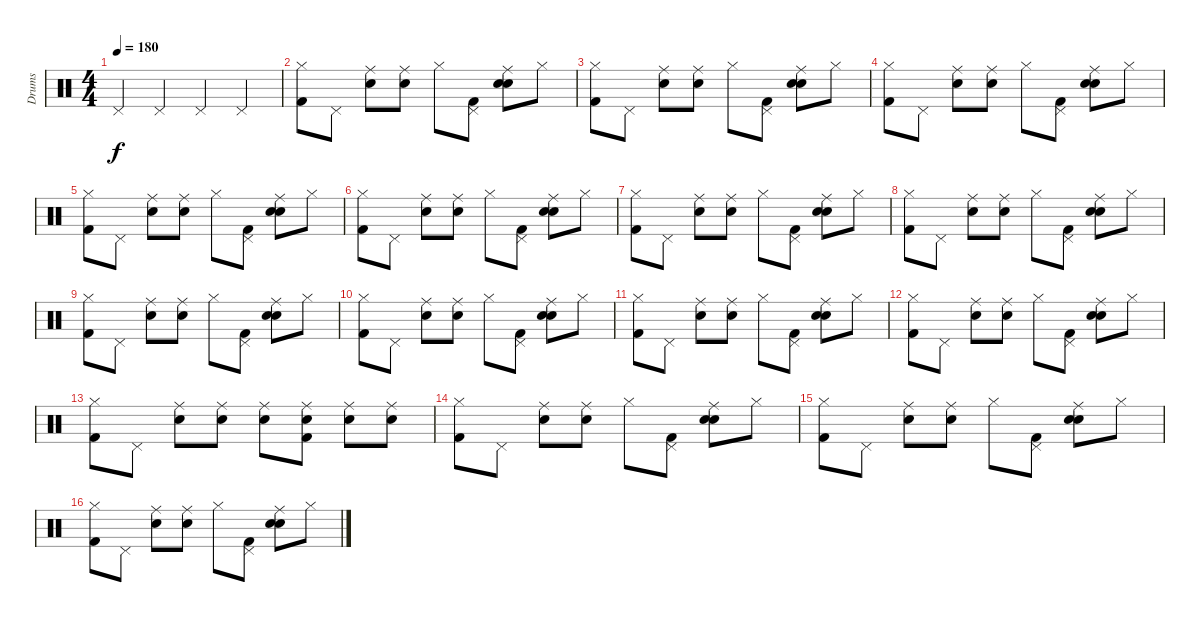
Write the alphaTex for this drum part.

\track ("Drums" "Drums") {instrument percussion}
\staff {score}
\articulation defaults
\ts (4 4)
\tempo 180
\clef neutral
\ks c "Pedal Hi-Hat (hit)".4{dy f} "Pedal Hi-Hat (hit)".4 "Pedal Hi-Hat (hit)".4 "Pedal Hi-Hat (hit)".4
|
("Hi-Hat (closed)" "Kick (hit) 2").8 "Pedal Hi-Hat (hit)".8 ("Ride (middle)" "Snare (hit) 2").8 ("Ride (middle)" "Snare (hit) 2").8 "Hi-Hat (closed)".8 ("Pedal Hi-Hat (hit)" "Kick (hit) 2").8 ("Hand Clap (hit)" "Ride (middle)" "Snare (hit) 2").8 "Hi-Hat (closed)".8 |
("Hi-Hat (closed)" "Kick (hit) 2").8 "Pedal Hi-Hat (hit)".8 ("Ride (middle)" "Snare (hit) 2").8 ("Ride (middle)" "Snare (hit) 2").8 "Hi-Hat (closed)".8 ("Pedal Hi-Hat (hit)" "Kick (hit) 2").8 ("Hand Clap (hit)" "Ride (middle)" "Snare (hit) 2").8 "Hi-Hat (closed)".8 |
("Hi-Hat (closed)" "Kick (hit) 2").8 "Pedal Hi-Hat (hit)".8 ("Ride (middle)" "Snare (hit) 2").8 ("Ride (middle)" "Snare (hit) 2").8 "Hi-Hat (closed)".8 ("Pedal Hi-Hat (hit)" "Kick (hit) 2").8 ("Hand Clap (hit)" "Ride (middle)" "Snare (hit) 2").8 "Hi-Hat (closed)".8 |
("Hi-Hat (closed)" "Kick (hit) 2").8 "Pedal Hi-Hat (hit)".8 ("Ride (middle)" "Snare (hit) 2").8 ("Ride (middle)" "Snare (hit) 2").8 "Hi-Hat (closed)".8 ("Pedal Hi-Hat (hit)" "Kick (hit) 2").8 ("Hand Clap (hit)" "Ride (middle)" "Snare (hit) 2").8 "Hi-Hat (closed)".8 |
("Hi-Hat (closed)" "Kick (hit) 2").8 "Pedal Hi-Hat (hit)".8 ("Ride (middle)" "Snare (hit) 2").8 ("Ride (middle)" "Snare (hit) 2").8 "Hi-Hat (closed)".8 ("Pedal Hi-Hat (hit)" "Kick (hit) 2").8 ("Hand Clap (hit)" "Ride (middle)" "Snare (hit) 2").8 "Hi-Hat (closed)".8 |
("Hi-Hat (closed)" "Kick (hit) 2").8 "Pedal Hi-Hat (hit)".8 ("Ride (middle)" "Snare (hit) 2").8 ("Ride (middle)" "Snare (hit) 2").8 "Hi-Hat (closed)".8 ("Pedal Hi-Hat (hit)" "Kick (hit) 2").8 ("Hand Clap (hit)" "Ride (middle)" "Snare (hit) 2").8 "Hi-Hat (closed)".8 |
("Hi-Hat (closed)" "Kick (hit) 2").8 "Pedal Hi-Hat (hit)".8 ("Ride (middle)" "Snare (hit) 2").8 ("Ride (middle)" "Snare (hit) 2").8 "Hi-Hat (closed)".8 ("Pedal Hi-Hat (hit)" "Kick (hit) 2").8 ("Hand Clap (hit)" "Ride (middle)" "Snare (hit) 2").8 "Hi-Hat (closed)".8 |
("Hi-Hat (closed)" "Kick (hit) 2").8 "Pedal Hi-Hat (hit)".8 ("Ride (middle)" "Snare (hit) 2").8 ("Ride (middle)" "Snare (hit) 2").8 "Hi-Hat (closed)".8 ("Pedal Hi-Hat (hit)" "Kick (hit) 2").8 ("Hand Clap (hit)" "Ride (middle)" "Snare (hit) 2").8 "Hi-Hat (closed)".8 |
("Hi-Hat (closed)" "Kick (hit) 2").8 "Pedal Hi-Hat (hit)".8 ("Ride (middle)" "Snare (hit) 2").8 ("Ride (middle)" "Snare (hit) 2").8 "Hi-Hat (closed)".8 ("Pedal Hi-Hat (hit)" "Kick (hit) 2").8 ("Hand Clap (hit)" "Ride (middle)" "Snare (hit) 2").8 "Hi-Hat (closed)".8 |
("Hi-Hat (closed)" "Kick (hit) 2").8 "Pedal Hi-Hat (hit)".8 ("Ride (middle)" "Snare (hit) 2").8 ("Ride (middle)" "Snare (hit) 2").8 "Hi-Hat (closed)".8 ("Pedal Hi-Hat (hit)" "Kick (hit) 2").8 ("Hand Clap (hit)" "Ride (middle)" "Snare (hit) 2").8 "Hi-Hat (closed)".8 |
("Hi-Hat (closed)" "Kick (hit) 2").8 "Pedal Hi-Hat (hit)".8 ("Ride (middle)" "Snare (hit) 2").8 ("Ride (middle)" "Snare (hit) 2").8 "Hi-Hat (closed)".8 ("Pedal Hi-Hat (hit)" "Kick (hit) 2").8 ("Hand Clap (hit)" "Ride (middle)" "Snare (hit) 2").8 "Hi-Hat (closed)".8 |
("Hi-Hat (closed)" "Kick (hit) 2").8 "Pedal Hi-Hat (hit)".8 ("Ride (middle)" "Snare (hit) 2").8 ("Ride (middle)" "Snare (hit) 2").8 ("Ride (middle)" "Snare (hit) 2").8 ("Ride (middle)" "Snare (hit) 2" "Kick (hit) 2").8 ("Ride (middle)" "Snare (hit) 2").8 ("Ride (middle)" "Snare (hit) 2").8 |
("Hi-Hat (closed)" "Kick (hit) 2").8 "Pedal Hi-Hat (hit)".8 ("Ride (middle)" "Snare (hit) 2").8 ("Ride (middle)" "Snare (hit) 2").8 "Hi-Hat (closed)".8 ("Pedal Hi-Hat (hit)" "Kick (hit) 2").8 ("Hand Clap (hit)" "Ride (middle)" "Snare (hit) 2").8 "Hi-Hat (closed)".8 |
("Hi-Hat (closed)" "Kick (hit) 2").8 "Pedal Hi-Hat (hit)".8 ("Ride (middle)" "Snare (hit) 2").8 ("Ride (middle)" "Snare (hit) 2").8 "Hi-Hat (closed)".8 ("Pedal Hi-Hat (hit)" "Kick (hit) 2").8 ("Hand Clap (hit)" "Ride (middle)" "Snare (hit) 2").8 "Hi-Hat (closed)".8 |
("Hi-Hat (closed)" "Kick (hit) 2").8 "Pedal Hi-Hat (hit)".8 ("Ride (middle)" "Snare (hit) 2").8 ("Ride (middle)" "Snare (hit) 2").8 "Hi-Hat (closed)".8 ("Pedal Hi-Hat (hit)" "Kick (hit) 2").8 ("Hand Clap (hit)" "Ride (middle)" "Snare (hit) 2").8 "Hi-Hat (closed)".8
